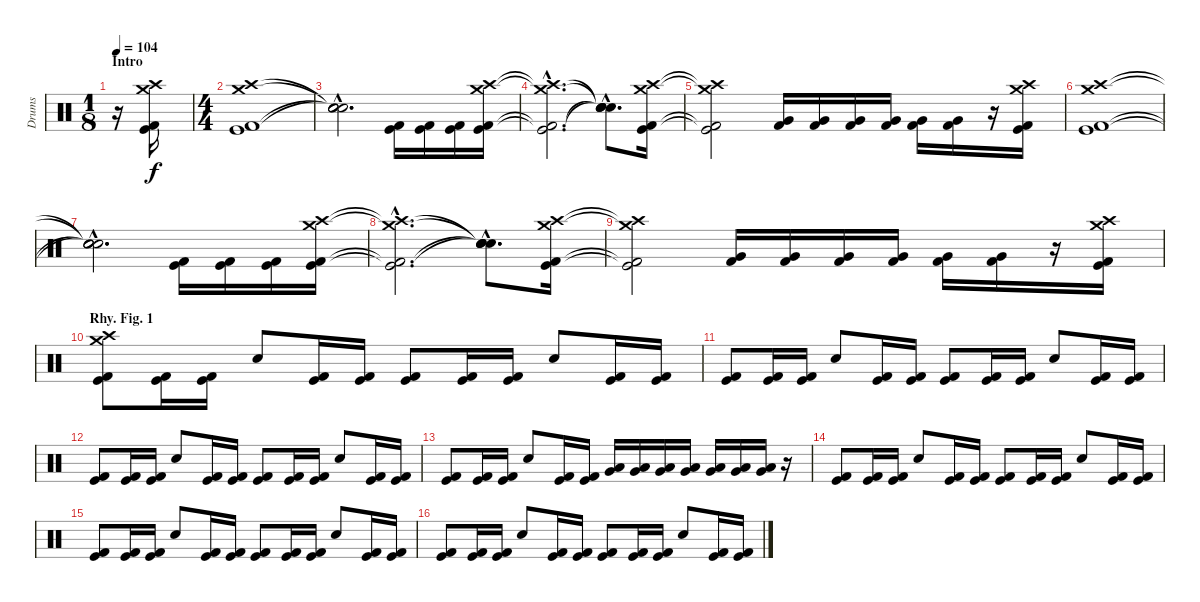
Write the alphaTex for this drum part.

\track ("Drums" "Drums") {instrument percussion}
\staff {score}
\articulation defaults
\ts (1 8)
\section ("" "Intro")
\tempo 104
\clef neutral
\ks c
r.16{dy f} ("Crash high (hit)" "Crash medium (hit)" "Kick (hit)" "Kick (hit) 2").16 |
\ts (4 4)
("Crash high (hit)" "Crash medium (hit)" "Kick (hit)" "Kick (hit) 2").1 |
("Snare (hit)"{hac t} "Snare (hit)"{hac t} "Snare (hit)"{hac t} "Snare (hit)"{hac t}).2{d} ("Kick (hit)" "Kick (hit) 2").16 ("Kick (hit)" "Kick (hit) 2").16 ("Kick (hit)" "Kick (hit) 2").16 ("Crash high (hit)" "Crash medium (hit)" "Kick (hit)" "Kick (hit) 2").16 |
("Crash high (hit)"{hac t} "Crash medium (hit)"{hac t} "Kick (hit)"{hac t} "Kick (hit) 2"{hac t}).2{d} ("Snare (hit)"{hac t} "Snare (hit)"{hac t} "Snare (hit)"{hac t} "Snare (hit)"{hac t}).8{d} ("Crash high (hit)" "Crash medium (hit)" "Kick (hit)" "Kick (hit) 2").16 |
("Crash high (hit)"{t} "Crash medium (hit)"{t} "Kick (hit)"{t} "Kick (hit) 2"{t}).2 ("Very Low Tom (hit)" "Kick (hit) 2").16 ("Very Low Tom (hit)" "Kick (hit) 2").16 ("Very Low Tom (hit)" "Kick (hit) 2").16 ("Very Low Tom (hit)" "Kick (hit) 2").16 ("Very Low Tom (hit)" "Kick (hit) 2").16 ("Very Low Tom (hit)" "Kick (hit) 2").16 r.16 ("Crash high (hit)" "Crash medium (hit)" "Kick (hit)" "Kick (hit) 2").16 |
("Crash high (hit)" "Crash medium (hit)" "Kick (hit)" "Kick (hit) 2").1 |
("Snare (hit)"{hac t} "Snare (hit)"{hac t} "Snare (hit)"{hac t} "Snare (hit)"{hac t}).2{d} ("Kick (hit)" "Kick (hit) 2").16 ("Kick (hit)" "Kick (hit) 2").16 ("Kick (hit)" "Kick (hit) 2").16 ("Crash high (hit)" "Crash medium (hit)" "Kick (hit)" "Kick (hit) 2").16 |
("Crash high (hit)"{hac t} "Crash medium (hit)"{hac t} "Kick (hit)"{hac t} "Kick (hit) 2"{hac t}).2{d} ("Snare (hit)"{hac t} "Snare (hit)"{hac t} "Snare (hit)"{hac t} "Snare (hit)"{hac t}).8{d} ("Crash high (hit)" "Crash medium (hit)" "Kick (hit)" "Kick (hit) 2").16 |
("Crash high (hit)"{t} "Crash medium (hit)"{t} "Kick (hit)"{t} "Kick (hit) 2"{t}).2 ("Very Low Tom (hit)" "Kick (hit) 2").16 ("Very Low Tom (hit)" "Kick (hit) 2").16 ("Very Low Tom (hit)" "Kick (hit) 2").16 ("Very Low Tom (hit)" "Kick (hit) 2").16 ("Very Low Tom (hit)" "Kick (hit) 2").16 ("Very Low Tom (hit)" "Kick (hit) 2").16 r.16 ("Crash high (hit)" "Crash medium (hit)" "Kick (hit)" "Kick (hit) 2").16 |
\section ("" "Rhy. Fig. 1")
("Crash high (hit)" "Crash medium (hit)" "Kick (hit)" "Kick (hit) 2").8 ("Kick (hit)" "Kick (hit) 2").16 ("Kick (hit)" "Kick (hit) 2").16 "Snare (hit) 2".8 ("Kick (hit)" "Kick (hit) 2").16 ("Kick (hit)" "Kick (hit) 2").16 ("Kick (hit)" "Kick (hit) 2").8 ("Kick (hit)" "Kick (hit) 2").16 ("Kick (hit)" "Kick (hit) 2").16 "Snare (hit) 2".8 ("Kick (hit)" "Kick (hit) 2").16 ("Kick (hit)" "Kick (hit) 2").16 |
("Kick (hit)" "Kick (hit) 2").8 ("Kick (hit)" "Kick (hit) 2").16 ("Kick (hit)" "Kick (hit) 2").16 "Snare (hit) 2".8 ("Kick (hit)" "Kick (hit) 2").16 ("Kick (hit)" "Kick (hit) 2").16 ("Kick (hit)" "Kick (hit) 2").8 ("Kick (hit)" "Kick (hit) 2").16 ("Kick (hit)" "Kick (hit) 2").16 "Snare (hit) 2".8 ("Kick (hit)" "Kick (hit) 2").16 ("Kick (hit)" "Kick (hit) 2").16 |
("Kick (hit)" "Kick (hit) 2").8 ("Kick (hit)" "Kick (hit) 2").16 ("Kick (hit)" "Kick (hit) 2").16 "Snare (hit) 2".8 ("Kick (hit)" "Kick (hit) 2").16 ("Kick (hit)" "Kick (hit) 2").16 ("Kick (hit)" "Kick (hit) 2").8 ("Kick (hit)" "Kick (hit) 2").16 ("Kick (hit)" "Kick (hit) 2").16 "Snare (hit) 2".8 ("Kick (hit)" "Kick (hit) 2").16 ("Kick (hit)" "Kick (hit) 2").16 |
("Kick (hit)" "Kick (hit) 2").8 ("Kick (hit)" "Kick (hit) 2").16 ("Kick (hit)" "Kick (hit) 2").16 "Snare (hit) 2".8 ("Kick (hit)" "Kick (hit) 2").16 ("Kick (hit)" "Kick (hit) 2").16 ("Very Low Tom (hit)" "Low Floor Tom (hit)").16 ("Very Low Tom (hit)" "Low Floor Tom (hit)").16 ("Very Low Tom (hit)" "Low Floor Tom (hit)").16 ("Very Low Tom (hit)" "Low Floor Tom (hit)").16 ("Very Low Tom (hit)" "Low Floor Tom (hit)").16 ("Very Low Tom (hit)" "Low Floor Tom (hit)").16 ("Very Low Tom (hit)" "Low Floor Tom (hit)").16 r.16 |
("Kick (hit)" "Kick (hit) 2").8 ("Kick (hit)" "Kick (hit) 2").16 ("Kick (hit)" "Kick (hit) 2").16 "Snare (hit) 2".8 ("Kick (hit)" "Kick (hit) 2").16 ("Kick (hit)" "Kick (hit) 2").16 ("Kick (hit)" "Kick (hit) 2").8 ("Kick (hit)" "Kick (hit) 2").16 ("Kick (hit)" "Kick (hit) 2").16 "Snare (hit) 2".8 ("Kick (hit)" "Kick (hit) 2").16 ("Kick (hit)" "Kick (hit) 2").16 |
("Kick (hit)" "Kick (hit) 2").8 ("Kick (hit)" "Kick (hit) 2").16 ("Kick (hit)" "Kick (hit) 2").16 "Snare (hit) 2".8 ("Kick (hit)" "Kick (hit) 2").16 ("Kick (hit)" "Kick (hit) 2").16 ("Kick (hit)" "Kick (hit) 2").8 ("Kick (hit)" "Kick (hit) 2").16 ("Kick (hit)" "Kick (hit) 2").16 "Snare (hit) 2".8 ("Kick (hit)" "Kick (hit) 2").16 ("Kick (hit)" "Kick (hit) 2").16 |
("Kick (hit)" "Kick (hit) 2").8 ("Kick (hit)" "Kick (hit) 2").16 ("Kick (hit)" "Kick (hit) 2").16 "Snare (hit) 2".8 ("Kick (hit)" "Kick (hit) 2").16 ("Kick (hit)" "Kick (hit) 2").16 ("Kick (hit)" "Kick (hit) 2").8 ("Kick (hit)" "Kick (hit) 2").16 ("Kick (hit)" "Kick (hit) 2").16 "Snare (hit) 2".8 ("Kick (hit)" "Kick (hit) 2").16 ("Kick (hit)" "Kick (hit) 2").16
